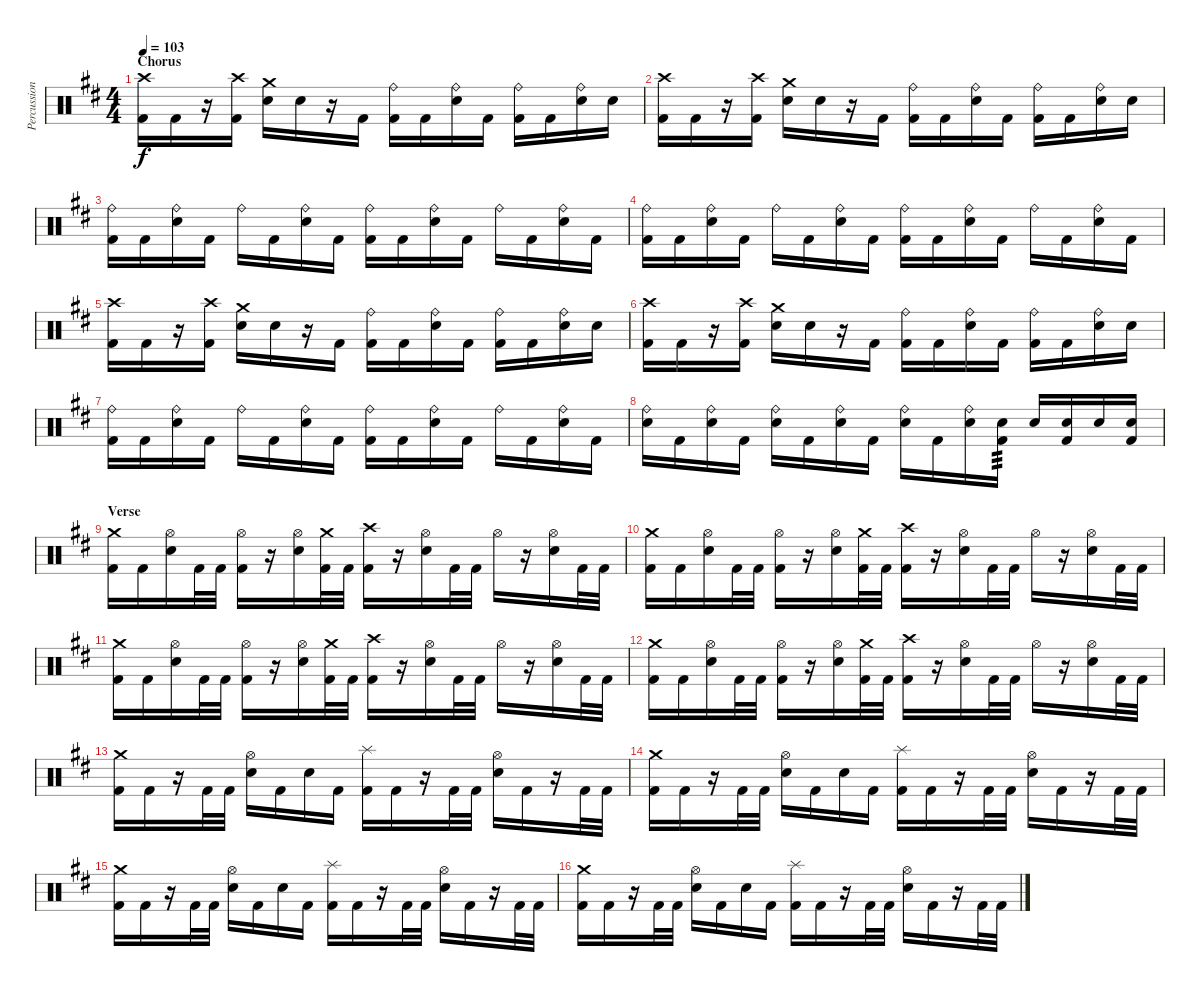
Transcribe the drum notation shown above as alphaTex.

\track ("Percussion" "Percussion") {instrument percussion}
\staff {score}
\articulation defaults
\ts (4 4)
\section ("" "Chorus")
\tempo 103
\clef neutral
\ks d
("Crash high (hit)" "Kick (hit) 2").16{dy f} "Kick (hit) 2".16 r.16 ("Crash high (hit)" "Kick (hit) 2").16 ("Crash medium (hit)" "Snare (hit) 2").16 "Snare (hit) 2".16 r.16 "Kick (hit) 2".16 ("Ride (bell)" "Kick (hit) 2").16 "Kick (hit) 2".16 ("Ride (bell)" "Snare (hit) 2").16 "Kick (hit) 2".16 ("Ride (bell)" "Kick (hit) 2").16 "Kick (hit) 2".16 ("Ride (bell)" "Snare (hit) 2").16 "Snare (hit) 2".16 |
("Crash high (hit)" "Kick (hit) 2").16 "Kick (hit) 2".16 r.16 ("Crash high (hit)" "Kick (hit) 2").16 ("Crash medium (hit)" "Snare (hit) 2").16 "Snare (hit) 2".16 r.16 "Kick (hit) 2".16 ("Ride (bell)" "Kick (hit) 2").16 "Kick (hit) 2".16 ("Ride (bell)" "Snare (hit) 2").16 "Kick (hit) 2".16 ("Ride (bell)" "Kick (hit) 2").16 "Kick (hit) 2".16 ("Ride (bell)" "Snare (hit) 2").16 "Snare (hit) 2".16 |
("Ride (bell)" "Kick (hit) 2").16 "Kick (hit) 2".16 ("Ride (bell)" "Snare (hit) 2").16 "Kick (hit) 2".16 "Ride (bell)".16 "Kick (hit) 2".16 ("Ride (bell)" "Snare (hit) 2").16 "Kick (hit) 2".16 ("Ride (bell)" "Kick (hit) 2").16 "Kick (hit) 2".16 ("Ride (bell)" "Snare (hit) 2").16 "Kick (hit) 2".16 "Ride (bell)".16 "Kick (hit) 2".16 ("Ride (bell)" "Snare (hit) 2").16 "Kick (hit) 2".16 |
("Ride (bell)" "Kick (hit) 2").16 "Kick (hit) 2".16 ("Ride (bell)" "Snare (hit) 2").16 "Kick (hit) 2".16 "Ride (bell)".16 "Kick (hit) 2".16 ("Ride (bell)" "Snare (hit) 2").16 "Kick (hit) 2".16 ("Ride (bell)" "Kick (hit) 2").16 "Kick (hit) 2".16 ("Ride (bell)" "Snare (hit) 2").16 "Kick (hit) 2".16 "Ride (bell)".16 "Kick (hit) 2".16 ("Ride (bell)" "Snare (hit) 2").16 "Kick (hit) 2".16 |
("Crash high (hit)" "Kick (hit) 2").16 "Kick (hit) 2".16 r.16 ("Crash high (hit)" "Kick (hit) 2").16 ("Crash medium (hit)" "Snare (hit) 2").16 "Snare (hit) 2".16 r.16 "Kick (hit) 2".16 ("Ride (bell)" "Kick (hit) 2").16 "Kick (hit) 2".16 ("Ride (bell)" "Snare (hit) 2").16 "Kick (hit) 2".16 ("Ride (bell)" "Kick (hit) 2").16 "Kick (hit) 2".16 ("Ride (bell)" "Snare (hit) 2").16 "Snare (hit) 2".16 |
("Crash high (hit)" "Kick (hit) 2").16 "Kick (hit) 2".16 r.16 ("Crash high (hit)" "Kick (hit) 2").16 ("Crash medium (hit)" "Snare (hit) 2").16 "Snare (hit) 2".16 r.16 "Kick (hit) 2".16 ("Ride (bell)" "Kick (hit) 2").16 "Kick (hit) 2".16 ("Ride (bell)" "Snare (hit) 2").16 "Kick (hit) 2".16 ("Ride (bell)" "Kick (hit) 2").16 "Kick (hit) 2".16 ("Ride (bell)" "Snare (hit) 2").16 "Snare (hit) 2".16 |
("Ride (bell)" "Kick (hit) 2").16 "Kick (hit) 2".16 ("Ride (bell)" "Snare (hit) 2").16 "Kick (hit) 2".16 "Ride (bell)".16 "Kick (hit) 2".16 ("Ride (bell)" "Snare (hit) 2").16 "Kick (hit) 2".16 ("Ride (bell)" "Kick (hit) 2").16 "Kick (hit) 2".16 ("Ride (bell)" "Snare (hit) 2").16 "Kick (hit) 2".16 "Ride (bell)".16 "Kick (hit) 2".16 ("Ride (bell)" "Snare (hit) 2").16 "Kick (hit) 2".16 |
("Ride (bell)" "Snare (hit) 2").16 "Kick (hit) 2".16 ("Ride (bell)" "Snare (hit) 2").16 "Kick (hit) 2".16 ("Ride (bell)" "Snare (hit) 2").16 "Kick (hit) 2".16 ("Ride (bell)" "Snare (hit) 2").16 "Kick (hit) 2".16 ("Ride (bell)" "Snare (hit) 2").16 "Kick (hit) 2".16 ("Ride (bell)" "Snare (hit) 2").16 ("Snare (hit) 2" "Kick (hit) 2").16{tp 3} "Snare (hit) 2".16 ("Snare (hit) 2" "Kick (hit) 2").16 "Snare (hit) 2".16 ("Snare (hit) 2" "Kick (hit) 2").16 |
\section ("" "Verse")
("Crash medium (hit)" "Kick (hit) 2").16 "Kick (hit) 2".16 ("Hi-Hat (open)" "Snare (hit) 2").16 "Kick (hit) 2".32 "Kick (hit) 2".32 ("Hi-Hat (open)" "Kick (hit) 2").16 r.16 ("Hi-Hat (open)" "Snare (hit) 2").16 ("Crash medium (hit)" "Kick (hit) 2").32 "Kick (hit) 2".32 ("Crash high (hit)" "Kick (hit) 2").16 r.16 ("Hi-Hat (open)" "Snare (hit) 2").16 "Kick (hit) 2".32 "Kick (hit) 2".32 "Hi-Hat (open)".16 r.16 ("Hi-Hat (open)" "Snare (hit) 2").16 "Kick (hit) 2".32 "Kick (hit) 2".32 |
("Crash medium (hit)" "Kick (hit) 2").16 "Kick (hit) 2".16 ("Hi-Hat (open)" "Snare (hit) 2").16 "Kick (hit) 2".32 "Kick (hit) 2".32 ("Hi-Hat (open)" "Kick (hit) 2").16 r.16 ("Hi-Hat (open)" "Snare (hit) 2").16 ("Crash medium (hit)" "Kick (hit) 2").32 "Kick (hit) 2".32 ("Crash high (hit)" "Kick (hit) 2").16 r.16 ("Hi-Hat (open)" "Snare (hit) 2").16 "Kick (hit) 2".32 "Kick (hit) 2".32 "Hi-Hat (open)".16 r.16 ("Hi-Hat (open)" "Snare (hit) 2").16 "Kick (hit) 2".32 "Kick (hit) 2".32 |
("Crash medium (hit)" "Kick (hit) 2").16 "Kick (hit) 2".16 ("Hi-Hat (open)" "Snare (hit) 2").16 "Kick (hit) 2".32 "Kick (hit) 2".32 ("Hi-Hat (open)" "Kick (hit) 2").16 r.16 ("Hi-Hat (open)" "Snare (hit) 2").16 ("Crash medium (hit)" "Kick (hit) 2").32 "Kick (hit) 2".32 ("Crash high (hit)" "Kick (hit) 2").16 r.16 ("Hi-Hat (open)" "Snare (hit) 2").16 "Kick (hit) 2".32 "Kick (hit) 2".32 "Hi-Hat (open)".16 r.16 ("Hi-Hat (open)" "Snare (hit) 2").16 "Kick (hit) 2".32 "Kick (hit) 2".32 |
("Crash medium (hit)" "Kick (hit) 2").16 "Kick (hit) 2".16 ("Hi-Hat (open)" "Snare (hit) 2").16 "Kick (hit) 2".32 "Kick (hit) 2".32 ("Hi-Hat (open)" "Kick (hit) 2").16 r.16 ("Hi-Hat (open)" "Snare (hit) 2").16 ("Crash medium (hit)" "Kick (hit) 2").32 "Kick (hit) 2".32 ("Crash high (hit)" "Kick (hit) 2").16 r.16 ("Hi-Hat (open)" "Snare (hit) 2").16 "Kick (hit) 2".32 "Kick (hit) 2".32 "Hi-Hat (open)".16 r.16 ("Hi-Hat (open)" "Snare (hit) 2").16 "Kick (hit) 2".32 "Kick (hit) 2".32 |
("Crash medium (hit)" "Kick (hit) 2").16 "Kick (hit) 2".16 r.16 "Kick (hit) 2".32 "Kick (hit) 2".32 ("Hi-Hat (open)" "Snare (hit) 2").16 "Kick (hit) 2".16 "Snare (hit) 2".16 "Kick (hit) 2".16 ("Splash (hit)" "Kick (hit) 2").16 "Kick (hit) 2".16 r.16 "Kick (hit) 2".32 "Kick (hit) 2".32 ("Hi-Hat (open)" "Snare (hit) 2").16 "Kick (hit) 2".16 r.16 "Kick (hit) 2".32 "Kick (hit) 2".32 |
("Crash medium (hit)" "Kick (hit) 2").16 "Kick (hit) 2".16 r.16 "Kick (hit) 2".32 "Kick (hit) 2".32 ("Hi-Hat (open)" "Snare (hit) 2").16 "Kick (hit) 2".16 "Snare (hit) 2".16 "Kick (hit) 2".16 ("Splash (hit)" "Kick (hit) 2").16 "Kick (hit) 2".16 r.16 "Kick (hit) 2".32 "Kick (hit) 2".32 ("Hi-Hat (open)" "Snare (hit) 2").16 "Kick (hit) 2".16 r.16 "Kick (hit) 2".32 "Kick (hit) 2".32 |
("Crash medium (hit)" "Kick (hit) 2").16 "Kick (hit) 2".16 r.16 "Kick (hit) 2".32 "Kick (hit) 2".32 ("Hi-Hat (open)" "Snare (hit) 2").16 "Kick (hit) 2".16 "Snare (hit) 2".16 "Kick (hit) 2".16 ("Splash (hit)" "Kick (hit) 2").16 "Kick (hit) 2".16 r.16 "Kick (hit) 2".32 "Kick (hit) 2".32 ("Hi-Hat (open)" "Snare (hit) 2").16 "Kick (hit) 2".16 r.16 "Kick (hit) 2".32 "Kick (hit) 2".32 |
("Crash medium (hit)" "Kick (hit) 2").16 "Kick (hit) 2".16 r.16 "Kick (hit) 2".32 "Kick (hit) 2".32 ("Hi-Hat (open)" "Snare (hit) 2").16 "Kick (hit) 2".16 "Snare (hit) 2".16 "Kick (hit) 2".16 ("Splash (hit)" "Kick (hit) 2").16 "Kick (hit) 2".16 r.16 "Kick (hit) 2".32 "Kick (hit) 2".32 ("Hi-Hat (open)" "Snare (hit) 2").16 "Kick (hit) 2".16 r.16 "Kick (hit) 2".32 "Kick (hit) 2".32
